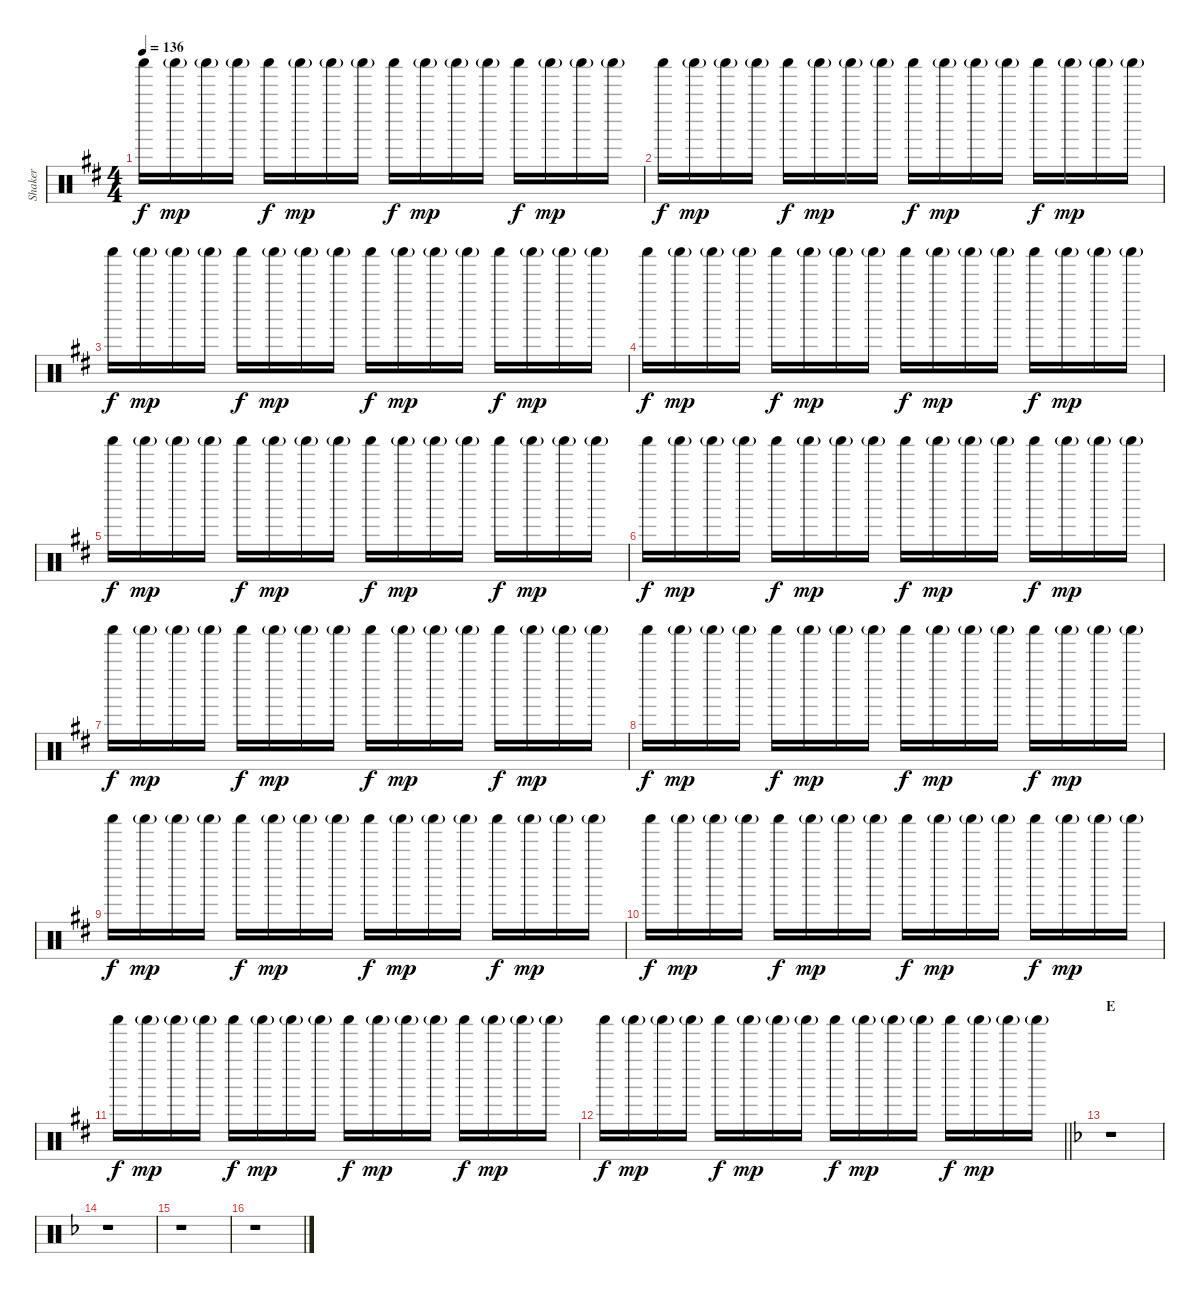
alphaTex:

\track ("Shaker" "Shaker") {instrument percussion}
\staff {score}
\articulation defaults
\ts (4 4)
\tempo 136
\clef neutral
\ks d "Shaker (hit)".16{dy f} "Shaker (hit)"{g}.16{dy mp} "Shaker (hit)"{g}.16 "Shaker (hit)"{g}.16 "Shaker (hit)".16{dy f} "Shaker (hit)"{g}.16{dy mp} "Shaker (hit)"{g}.16 "Shaker (hit)"{g}.16 "Shaker (hit)".16{dy f} "Shaker (hit)"{g}.16{dy mp} "Shaker (hit)"{g}.16 "Shaker (hit)"{g}.16 "Shaker (hit)".16{dy f} "Shaker (hit)"{g}.16{dy mp} "Shaker (hit)"{g}.16 "Shaker (hit)"{g}.16
|
"Shaker (hit)".16{dy f} "Shaker (hit)"{g}.16{dy mp} "Shaker (hit)"{g}.16 "Shaker (hit)"{g}.16 "Shaker (hit)".16{dy f} "Shaker (hit)"{g}.16{dy mp} "Shaker (hit)"{g}.16 "Shaker (hit)"{g}.16 "Shaker (hit)".16{dy f} "Shaker (hit)"{g}.16{dy mp} "Shaker (hit)"{g}.16 "Shaker (hit)"{g}.16 "Shaker (hit)".16{dy f} "Shaker (hit)"{g}.16{dy mp} "Shaker (hit)"{g}.16 "Shaker (hit)"{g}.16 |
"Shaker (hit)".16{dy f} "Shaker (hit)"{g}.16{dy mp} "Shaker (hit)"{g}.16 "Shaker (hit)"{g}.16 "Shaker (hit)".16{dy f} "Shaker (hit)"{g}.16{dy mp} "Shaker (hit)"{g}.16 "Shaker (hit)"{g}.16 "Shaker (hit)".16{dy f} "Shaker (hit)"{g}.16{dy mp} "Shaker (hit)"{g}.16 "Shaker (hit)"{g}.16 "Shaker (hit)".16{dy f} "Shaker (hit)"{g}.16{dy mp} "Shaker (hit)"{g}.16 "Shaker (hit)"{g}.16 |
"Shaker (hit)".16{dy f} "Shaker (hit)"{g}.16{dy mp} "Shaker (hit)"{g}.16 "Shaker (hit)"{g}.16 "Shaker (hit)".16{dy f} "Shaker (hit)"{g}.16{dy mp} "Shaker (hit)"{g}.16 "Shaker (hit)"{g}.16 "Shaker (hit)".16{dy f} "Shaker (hit)"{g}.16{dy mp} "Shaker (hit)"{g}.16 "Shaker (hit)"{g}.16 "Shaker (hit)".16{dy f} "Shaker (hit)"{g}.16{dy mp} "Shaker (hit)"{g}.16 "Shaker (hit)"{g}.16 |
"Shaker (hit)".16{dy f} "Shaker (hit)"{g}.16{dy mp} "Shaker (hit)"{g}.16 "Shaker (hit)"{g}.16 "Shaker (hit)".16{dy f} "Shaker (hit)"{g}.16{dy mp} "Shaker (hit)"{g}.16 "Shaker (hit)"{g}.16 "Shaker (hit)".16{dy f} "Shaker (hit)"{g}.16{dy mp} "Shaker (hit)"{g}.16 "Shaker (hit)"{g}.16 "Shaker (hit)".16{dy f} "Shaker (hit)"{g}.16{dy mp} "Shaker (hit)"{g}.16 "Shaker (hit)"{g}.16 |
"Shaker (hit)".16{dy f} "Shaker (hit)"{g}.16{dy mp} "Shaker (hit)"{g}.16 "Shaker (hit)"{g}.16 "Shaker (hit)".16{dy f} "Shaker (hit)"{g}.16{dy mp} "Shaker (hit)"{g}.16 "Shaker (hit)"{g}.16 "Shaker (hit)".16{dy f} "Shaker (hit)"{g}.16{dy mp} "Shaker (hit)"{g}.16 "Shaker (hit)"{g}.16 "Shaker (hit)".16{dy f} "Shaker (hit)"{g}.16{dy mp} "Shaker (hit)"{g}.16 "Shaker (hit)"{g}.16 |
"Shaker (hit)".16{dy f} "Shaker (hit)"{g}.16{dy mp} "Shaker (hit)"{g}.16 "Shaker (hit)"{g}.16 "Shaker (hit)".16{dy f} "Shaker (hit)"{g}.16{dy mp} "Shaker (hit)"{g}.16 "Shaker (hit)"{g}.16 "Shaker (hit)".16{dy f} "Shaker (hit)"{g}.16{dy mp} "Shaker (hit)"{g}.16 "Shaker (hit)"{g}.16 "Shaker (hit)".16{dy f} "Shaker (hit)"{g}.16{dy mp} "Shaker (hit)"{g}.16 "Shaker (hit)"{g}.16 |
"Shaker (hit)".16{dy f} "Shaker (hit)"{g}.16{dy mp} "Shaker (hit)"{g}.16 "Shaker (hit)"{g}.16 "Shaker (hit)".16{dy f} "Shaker (hit)"{g}.16{dy mp} "Shaker (hit)"{g}.16 "Shaker (hit)"{g}.16 "Shaker (hit)".16{dy f} "Shaker (hit)"{g}.16{dy mp} "Shaker (hit)"{g}.16 "Shaker (hit)"{g}.16 "Shaker (hit)".16{dy f} "Shaker (hit)"{g}.16{dy mp} "Shaker (hit)"{g}.16 "Shaker (hit)"{g}.16 |
"Shaker (hit)".16{dy f} "Shaker (hit)"{g}.16{dy mp} "Shaker (hit)"{g}.16 "Shaker (hit)"{g}.16 "Shaker (hit)".16{dy f} "Shaker (hit)"{g}.16{dy mp} "Shaker (hit)"{g}.16 "Shaker (hit)"{g}.16 "Shaker (hit)".16{dy f} "Shaker (hit)"{g}.16{dy mp} "Shaker (hit)"{g}.16 "Shaker (hit)"{g}.16 "Shaker (hit)".16{dy f} "Shaker (hit)"{g}.16{dy mp} "Shaker (hit)"{g}.16 "Shaker (hit)"{g}.16 |
"Shaker (hit)".16{dy f} "Shaker (hit)"{g}.16{dy mp} "Shaker (hit)"{g}.16 "Shaker (hit)"{g}.16 "Shaker (hit)".16{dy f} "Shaker (hit)"{g}.16{dy mp} "Shaker (hit)"{g}.16 "Shaker (hit)"{g}.16 "Shaker (hit)".16{dy f} "Shaker (hit)"{g}.16{dy mp} "Shaker (hit)"{g}.16 "Shaker (hit)"{g}.16 "Shaker (hit)".16{dy f} "Shaker (hit)"{g}.16{dy mp} "Shaker (hit)"{g}.16 "Shaker (hit)"{g}.16 |
"Shaker (hit)".16{dy f} "Shaker (hit)"{g}.16{dy mp} "Shaker (hit)"{g}.16 "Shaker (hit)"{g}.16 "Shaker (hit)".16{dy f} "Shaker (hit)"{g}.16{dy mp} "Shaker (hit)"{g}.16 "Shaker (hit)"{g}.16 "Shaker (hit)".16{dy f} "Shaker (hit)"{g}.16{dy mp} "Shaker (hit)"{g}.16 "Shaker (hit)"{g}.16 "Shaker (hit)".16{dy f} "Shaker (hit)"{g}.16{dy mp} "Shaker (hit)"{g}.16 "Shaker (hit)"{g}.16 |
\barLineRight lightlight "Shaker (hit)".16{dy f} "Shaker (hit)"{g}.16{dy mp} "Shaker (hit)"{g}.16 "Shaker (hit)"{g}.16 "Shaker (hit)".16{dy f} "Shaker (hit)"{g}.16{dy mp} "Shaker (hit)"{g}.16 "Shaker (hit)"{g}.16 "Shaker (hit)".16{dy f} "Shaker (hit)"{g}.16{dy mp} "Shaker (hit)"{g}.16 "Shaker (hit)"{g}.16 "Shaker (hit)".16{dy f} "Shaker (hit)"{g}.16{dy mp} "Shaker (hit)"{g}.16 "Shaker (hit)"{g}.16
|
\section ("" "E")
\ks f
r.1 |
r.1 |
r.1 |
r.1
